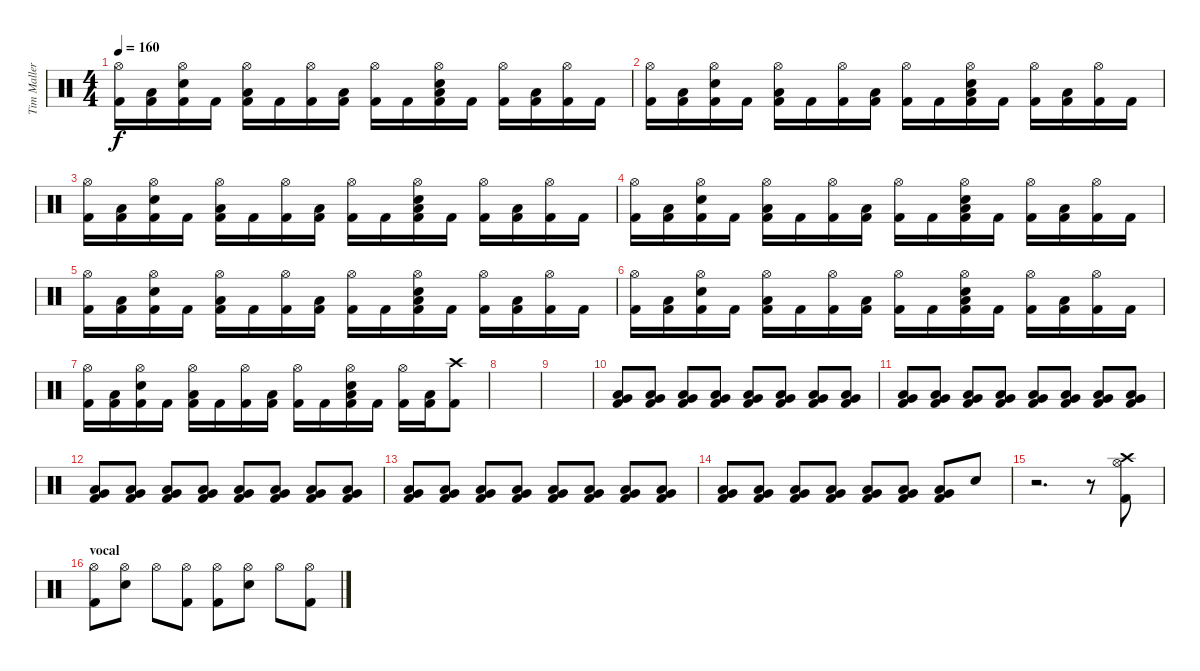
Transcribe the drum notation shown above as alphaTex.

\track ("Tim Mallere" "Tim Maller") {instrument percussion}
\staff {score}
\articulation defaults
\ts (4 4)
\tempo 160
\clef neutral
\ks c
("Hi-Hat (open)" "Kick (hit) 2").16{dy f} ("Low Tom (hit)" "Kick (hit) 2").16 ("Hi-Hat (open)" "Electric Snare (hit)" "Kick (hit) 2").16 "Kick (hit) 2".16 ("Hi-Hat (open)" "Low Tom (hit)" "Kick (hit) 2").16 "Kick (hit) 2".16 ("Hi-Hat (open)" "Kick (hit) 2").16 ("Low Tom (hit)" "Kick (hit) 2").16 ("Hi-Hat (open)" "Kick (hit) 2").16 "Kick (hit) 2".16 ("Hi-Hat (open)" "Low Tom (hit)" "Electric Snare (hit)" "Kick (hit) 2").16 "Kick (hit) 2".16 ("Hi-Hat (open)" "Kick (hit) 2").16 ("Low Tom (hit)" "Kick (hit) 2").16 ("Hi-Hat (open)" "Kick (hit) 2").16 "Kick (hit) 2".16 |
("Hi-Hat (open)" "Kick (hit) 2").16 ("Low Tom (hit)" "Kick (hit) 2").16 ("Hi-Hat (open)" "Electric Snare (hit)" "Kick (hit) 2").16 "Kick (hit) 2".16 ("Hi-Hat (open)" "Low Tom (hit)" "Kick (hit) 2").16 "Kick (hit) 2".16 ("Hi-Hat (open)" "Kick (hit) 2").16 ("Low Tom (hit)" "Kick (hit) 2").16 ("Hi-Hat (open)" "Kick (hit) 2").16 "Kick (hit) 2".16 ("Hi-Hat (open)" "Low Tom (hit)" "Electric Snare (hit)" "Kick (hit) 2").16 "Kick (hit) 2".16 ("Hi-Hat (open)" "Kick (hit) 2").16 ("Low Tom (hit)" "Kick (hit) 2").16 ("Hi-Hat (open)" "Kick (hit) 2").16 "Kick (hit) 2".16 |
("Hi-Hat (open)" "Kick (hit) 2").16 ("Low Tom (hit)" "Kick (hit) 2").16 ("Hi-Hat (open)" "Electric Snare (hit)" "Kick (hit) 2").16 "Kick (hit) 2".16 ("Hi-Hat (open)" "Low Tom (hit)" "Kick (hit) 2").16 "Kick (hit) 2".16 ("Hi-Hat (open)" "Kick (hit) 2").16 ("Low Tom (hit)" "Kick (hit) 2").16 ("Hi-Hat (open)" "Kick (hit) 2").16 "Kick (hit) 2".16 ("Hi-Hat (open)" "Low Tom (hit)" "Electric Snare (hit)" "Kick (hit) 2").16 "Kick (hit) 2".16 ("Hi-Hat (open)" "Kick (hit) 2").16 ("Low Tom (hit)" "Kick (hit) 2").16 ("Hi-Hat (open)" "Kick (hit) 2").16 "Kick (hit) 2".16 |
("Hi-Hat (open)" "Kick (hit) 2").16 ("Low Tom (hit)" "Kick (hit) 2").16 ("Hi-Hat (open)" "Electric Snare (hit)" "Kick (hit) 2").16 "Kick (hit) 2".16 ("Hi-Hat (open)" "Low Tom (hit)" "Kick (hit) 2").16 "Kick (hit) 2".16 ("Hi-Hat (open)" "Kick (hit) 2").16 ("Low Tom (hit)" "Kick (hit) 2").16 ("Hi-Hat (open)" "Kick (hit) 2").16 "Kick (hit) 2".16 ("Hi-Hat (open)" "Low Tom (hit)" "Electric Snare (hit)" "Kick (hit) 2").16 "Kick (hit) 2".16 ("Hi-Hat (open)" "Kick (hit) 2").16 ("Low Tom (hit)" "Kick (hit) 2").16 ("Hi-Hat (open)" "Kick (hit) 2").16 "Kick (hit) 2".16 |
("Hi-Hat (open)" "Kick (hit) 2").16 ("Low Tom (hit)" "Kick (hit) 2").16 ("Hi-Hat (open)" "Electric Snare (hit)" "Kick (hit) 2").16 "Kick (hit) 2".16 ("Hi-Hat (open)" "Low Tom (hit)" "Kick (hit) 2").16 "Kick (hit) 2".16 ("Hi-Hat (open)" "Kick (hit) 2").16 ("Low Tom (hit)" "Kick (hit) 2").16 ("Hi-Hat (open)" "Kick (hit) 2").16 "Kick (hit) 2".16 ("Hi-Hat (open)" "Low Tom (hit)" "Electric Snare (hit)" "Kick (hit) 2").16 "Kick (hit) 2".16 ("Hi-Hat (open)" "Kick (hit) 2").16 ("Low Tom (hit)" "Kick (hit) 2").16 ("Hi-Hat (open)" "Kick (hit) 2").16 "Kick (hit) 2".16 |
("Hi-Hat (open)" "Kick (hit) 2").16 ("Low Tom (hit)" "Kick (hit) 2").16 ("Hi-Hat (open)" "Electric Snare (hit)" "Kick (hit) 2").16 "Kick (hit) 2".16 ("Hi-Hat (open)" "Low Tom (hit)" "Kick (hit) 2").16 "Kick (hit) 2".16 ("Hi-Hat (open)" "Kick (hit) 2").16 ("Low Tom (hit)" "Kick (hit) 2").16 ("Hi-Hat (open)" "Kick (hit) 2").16 "Kick (hit) 2".16 ("Hi-Hat (open)" "Low Tom (hit)" "Electric Snare (hit)" "Kick (hit) 2").16 "Kick (hit) 2".16 ("Hi-Hat (open)" "Kick (hit) 2").16 ("Low Tom (hit)" "Kick (hit) 2").16 ("Hi-Hat (open)" "Kick (hit) 2").16 "Kick (hit) 2".16 |
("Hi-Hat (open)" "Kick (hit) 2").16 ("Low Tom (hit)" "Kick (hit) 2").16 ("Hi-Hat (open)" "Electric Snare (hit)" "Kick (hit) 2").16 "Kick (hit) 2".16 ("Hi-Hat (open)" "Low Tom (hit)" "Kick (hit) 2").16 "Kick (hit) 2".16 ("Hi-Hat (open)" "Kick (hit) 2").16 ("Low Tom (hit)" "Kick (hit) 2").16 ("Hi-Hat (open)" "Kick (hit) 2").16 "Kick (hit) 2".16 ("Hi-Hat (open)" "Low Tom (hit)" "Electric Snare (hit)" "Kick (hit) 2").16 "Kick (hit) 2".16 ("Hi-Hat (open)" "Kick (hit) 2").16 ("Low Tom (hit)" "Kick (hit) 2").16 ("Crash high (hit)" "Kick (hit) 2").8 |
|
|
("Low Floor Tom (hit)" "Very Low Tom (hit)" "Kick (hit) 2").8 ("Low Floor Tom (hit)" "Very Low Tom (hit)" "Kick (hit) 2").8 ("Low Floor Tom (hit)" "Very Low Tom (hit)" "Kick (hit) 2").8 ("Low Floor Tom (hit)" "Very Low Tom (hit)" "Kick (hit) 2").8 ("Low Floor Tom (hit)" "Very Low Tom (hit)" "Kick (hit) 2").8 ("Low Floor Tom (hit)" "Very Low Tom (hit)" "Kick (hit) 2").8 ("Low Floor Tom (hit)" "Very Low Tom (hit)" "Kick (hit) 2").8 ("Low Floor Tom (hit)" "Very Low Tom (hit)" "Kick (hit) 2").8 |
("Low Floor Tom (hit)" "Very Low Tom (hit)" "Kick (hit) 2").8 ("Low Floor Tom (hit)" "Very Low Tom (hit)" "Kick (hit) 2").8 ("Low Floor Tom (hit)" "Very Low Tom (hit)" "Kick (hit) 2").8 ("Low Floor Tom (hit)" "Very Low Tom (hit)" "Kick (hit) 2").8 ("Low Floor Tom (hit)" "Very Low Tom (hit)" "Kick (hit) 2").8 ("Low Floor Tom (hit)" "Very Low Tom (hit)" "Kick (hit) 2").8 ("Low Floor Tom (hit)" "Very Low Tom (hit)" "Kick (hit) 2").8 ("Low Floor Tom (hit)" "Very Low Tom (hit)" "Kick (hit) 2").8 |
("Low Floor Tom (hit)" "Very Low Tom (hit)" "Kick (hit) 2").8 ("Low Floor Tom (hit)" "Very Low Tom (hit)" "Kick (hit) 2").8 ("Low Floor Tom (hit)" "Very Low Tom (hit)" "Kick (hit) 2").8 ("Low Floor Tom (hit)" "Very Low Tom (hit)" "Kick (hit) 2").8 ("Low Floor Tom (hit)" "Very Low Tom (hit)" "Kick (hit) 2").8 ("Low Floor Tom (hit)" "Very Low Tom (hit)" "Kick (hit) 2").8 ("Low Floor Tom (hit)" "Very Low Tom (hit)" "Kick (hit) 2").8 ("Low Floor Tom (hit)" "Very Low Tom (hit)" "Kick (hit) 2").8 |
("Low Floor Tom (hit)" "Very Low Tom (hit)" "Kick (hit) 2").8 ("Low Floor Tom (hit)" "Very Low Tom (hit)" "Kick (hit) 2").8 ("Low Floor Tom (hit)" "Very Low Tom (hit)" "Kick (hit) 2").8 ("Low Floor Tom (hit)" "Very Low Tom (hit)" "Kick (hit) 2").8 ("Low Floor Tom (hit)" "Very Low Tom (hit)" "Kick (hit) 2").8 ("Low Floor Tom (hit)" "Very Low Tom (hit)" "Kick (hit) 2").8 ("Low Floor Tom (hit)" "Very Low Tom (hit)" "Kick (hit) 2").8 ("Low Floor Tom (hit)" "Very Low Tom (hit)" "Kick (hit) 2").8 |
("Low Floor Tom (hit)" "Very Low Tom (hit)" "Kick (hit) 2").8 ("Low Floor Tom (hit)" "Very Low Tom (hit)" "Kick (hit) 2").8 ("Low Floor Tom (hit)" "Very Low Tom (hit)" "Kick (hit) 2").8 ("Low Floor Tom (hit)" "Very Low Tom (hit)" "Kick (hit) 2").8 ("Low Floor Tom (hit)" "Very Low Tom (hit)" "Kick (hit) 2").8 ("Low Floor Tom (hit)" "Very Low Tom (hit)" "Kick (hit) 2").8 ("Low Floor Tom (hit)" "Very Low Tom (hit)" "Kick (hit) 2").8 "Electric Snare (hit)".8 |
r.2{d} r.8 ("Crash high (hit)" "Hi-Hat (open)" "Kick (hit) 2").8 |
\section ("" "vocal")
("Hi-Hat (open)" "Kick (hit) 2").8 ("Hi-Hat (open)" "Electric Snare (hit)").8 "Hi-Hat (open)".8 ("Hi-Hat (open)" "Kick (hit) 2").8 ("Hi-Hat (open)" "Kick (hit) 2").8 ("Hi-Hat (open)" "Electric Snare (hit)").8 "Hi-Hat (open)".8 ("Hi-Hat (open)" "Kick (hit) 2").8
